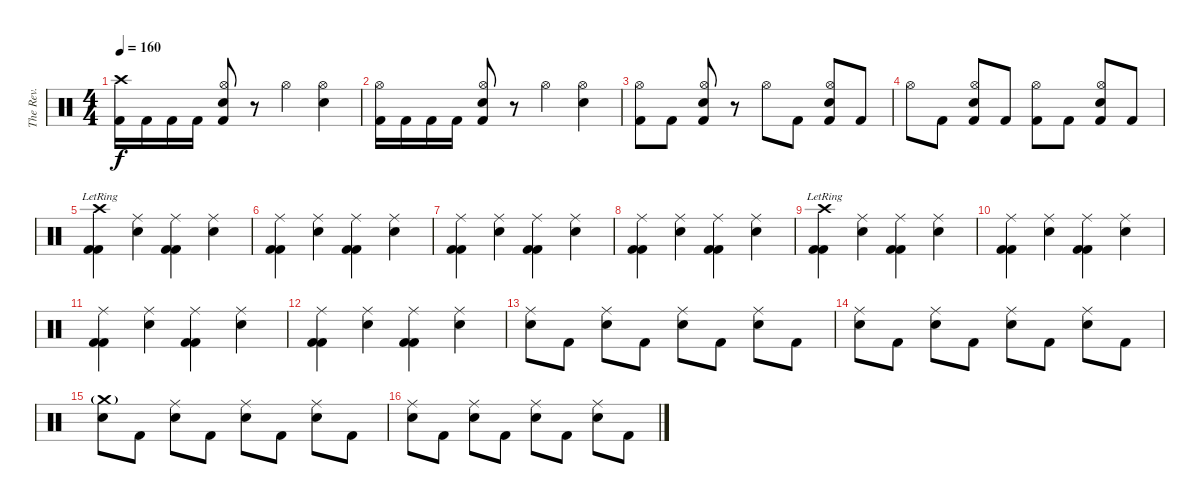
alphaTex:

\track ("The Rev." "The Rev.") {instrument percussion}
\staff {score}
\articulation defaults
\ts (4 4)
\tempo 160
\clef neutral
\ks c
("Crash high (hit)" "Kick (hit) 2").16{dy f} "Kick (hit) 2".16 "Kick (hit) 2".16 "Kick (hit) 2".16 ("Hi-Hat (open)" "Electric Snare (hit)" "Kick (hit) 2").8 r.8 "Hi-Hat (open)".4 ("Hi-Hat (open)" "Electric Snare (hit)").4 |
("Hi-Hat (open)" "Kick (hit) 2").16 "Kick (hit) 2".16 "Kick (hit) 2".16 "Kick (hit) 2".16 ("Hi-Hat (open)" "Electric Snare (hit)" "Kick (hit) 2").8 r.8 "Hi-Hat (open)".4 ("Hi-Hat (open)" "Electric Snare (hit)").4 |
("Hi-Hat (open)" "Kick (hit) 2").8 "Kick (hit) 2".8 ("Hi-Hat (open)" "Electric Snare (hit)" "Kick (hit) 2").8 r.8 "Hi-Hat (open)".8 "Kick (hit) 2".8 ("Hi-Hat (open)" "Electric Snare (hit)" "Kick (hit) 2").8 "Kick (hit) 2".8 |
"Hi-Hat (open)".8 "Kick (hit) 2".8 ("Hi-Hat (open)" "Electric Snare (hit)" "Kick (hit) 2").8 "Kick (hit) 2".8 ("Hi-Hat (open)" "Kick (hit) 2").8 "Kick (hit) 2".8 ("Hi-Hat (open)" "Electric Snare (hit)" "Kick (hit) 2").8 "Kick (hit) 2".8 |
("Crash high (hit)" "Kick (hit) 2" "Kick (hit) 2"{lr}).4 ("Ride (middle)" "Electric Snare (hit)").4 ("Ride (middle)" "Kick (hit) 2" "Kick (hit) 2").4 ("Ride (middle)" "Electric Snare (hit)").4 |
("Ride (middle)" "Kick (hit) 2" "Kick (hit) 2").4 ("Ride (middle)" "Electric Snare (hit)").4 ("Ride (middle)" "Kick (hit) 2" "Kick (hit) 2").4 ("Ride (middle)" "Electric Snare (hit)").4 |
("Ride (middle)" "Kick (hit) 2" "Kick (hit) 2").4 ("Ride (middle)" "Electric Snare (hit)").4 ("Ride (middle)" "Kick (hit) 2" "Kick (hit) 2").4 ("Ride (middle)" "Electric Snare (hit)").4 |
("Ride (middle)" "Kick (hit) 2" "Kick (hit) 2").4 ("Ride (middle)" "Electric Snare (hit)").4 ("Ride (middle)" "Kick (hit) 2" "Kick (hit) 2").4 ("Ride (middle)" "Electric Snare (hit)").4 |
("Crash high (hit)" "Kick (hit) 2" "Kick (hit) 2"{lr}).4 ("Ride (middle)" "Electric Snare (hit)").4 ("Ride (middle)" "Kick (hit) 2" "Kick (hit) 2").4 ("Ride (middle)" "Electric Snare (hit)").4 |
("Ride (middle)" "Kick (hit) 2" "Kick (hit) 2").4 ("Ride (middle)" "Electric Snare (hit)").4 ("Ride (middle)" "Kick (hit) 2" "Kick (hit) 2").4 ("Ride (middle)" "Electric Snare (hit)").4 |
("Ride (middle)" "Kick (hit) 2" "Kick (hit) 2").4 ("Ride (middle)" "Electric Snare (hit)").4 ("Ride (middle)" "Kick (hit) 2" "Kick (hit) 2").4 ("Ride (middle)" "Electric Snare (hit)").4 |
("Ride (middle)" "Kick (hit) 2" "Kick (hit) 2").4 ("Ride (middle)" "Electric Snare (hit)").4 ("Ride (middle)" "Kick (hit) 2" "Kick (hit) 2").4 ("Ride (middle)" "Electric Snare (hit)").4 |
("Ride (middle)" "Electric Snare (hit)").8 "Kick (hit) 2".8 ("Ride (middle)" "Electric Snare (hit)").8 "Kick (hit) 2".8 ("Ride (middle)" "Electric Snare (hit)").8 "Kick (hit) 2".8 ("Ride (middle)" "Electric Snare (hit)").8 "Kick (hit) 2".8 |
("Ride (middle)" "Electric Snare (hit)").8 "Kick (hit) 2".8 ("Ride (middle)" "Electric Snare (hit)").8 "Kick (hit) 2".8 ("Ride (middle)" "Electric Snare (hit)").8 "Kick (hit) 2".8 ("Ride (middle)" "Electric Snare (hit)").8 "Kick (hit) 2".8 |
("Crash medium (hit)"{g} "Electric Snare (hit)").8 "Kick (hit) 2".8 ("Ride (middle)" "Electric Snare (hit)").8 "Kick (hit) 2".8 ("Ride (middle)" "Electric Snare (hit)").8 "Kick (hit) 2".8 ("Ride (middle)" "Electric Snare (hit)").8 "Kick (hit) 2".8 |
("Ride (middle)" "Electric Snare (hit)").8 "Kick (hit) 2".8 ("Ride (middle)" "Electric Snare (hit)").8 "Kick (hit) 2".8 ("Ride (middle)" "Electric Snare (hit)").8 "Kick (hit) 2".8 ("Ride (middle)" "Electric Snare (hit)").8 "Kick (hit) 2".8
